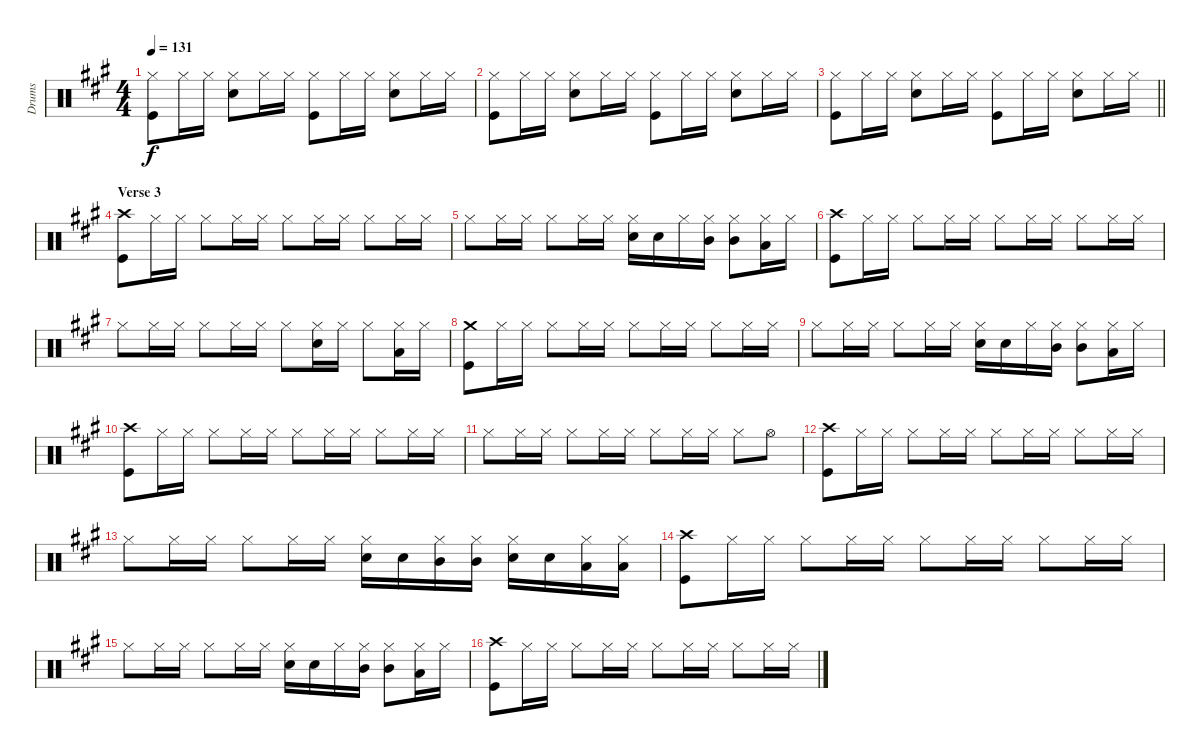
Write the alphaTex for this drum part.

\track ("Drums" "Drums") {instrument percussion}
\staff {score}
\articulation defaults
\ts (4 4)
\tempo 131
\clef neutral
\ks a
("Hi-Hat (closed)" "Kick (hit)").8{dy f} "Hi-Hat (closed)".16 "Hi-Hat (closed)".16 ("Hi-Hat (closed)" "Snare (hit) 2").8 "Hi-Hat (closed)".16 "Hi-Hat (closed)".16 ("Hi-Hat (closed)" "Kick (hit)").8 "Hi-Hat (closed)".16 "Hi-Hat (closed)".16 ("Hi-Hat (closed)" "Snare (hit) 2").8 "Hi-Hat (closed)".16 "Hi-Hat (closed)".16 |
("Hi-Hat (closed)" "Kick (hit)").8 "Hi-Hat (closed)".16 "Hi-Hat (closed)".16 ("Hi-Hat (closed)" "Snare (hit) 2").8 "Hi-Hat (closed)".16 "Hi-Hat (closed)".16 ("Hi-Hat (closed)" "Kick (hit)").8 "Hi-Hat (closed)".16 "Hi-Hat (closed)".16 ("Hi-Hat (closed)" "Snare (hit) 2").8 "Hi-Hat (closed)".16 "Hi-Hat (closed)".16 |
\barLineRight lightlight
("Hi-Hat (closed)" "Kick (hit)").8 "Hi-Hat (closed)".16 "Hi-Hat (closed)".16 ("Hi-Hat (closed)" "Snare (hit) 2").8 "Hi-Hat (closed)".16 "Hi-Hat (closed)".16 ("Hi-Hat (closed)" "Kick (hit)").8 "Hi-Hat (closed)".16 "Hi-Hat (closed)".16 ("Hi-Hat (closed)" "Snare (hit) 2").8 "Hi-Hat (closed)".16 "Hi-Hat (closed)".16 |
\section ("" "Verse 3")
("Crash high (hit)" "Kick (hit)").8 "Hi-Hat (closed)".16 "Hi-Hat (closed)".16 "Hi-Hat (closed)".8 "Hi-Hat (closed)".16 "Hi-Hat (closed)".16 "Hi-Hat (closed)".8 "Hi-Hat (closed)".16 "Hi-Hat (closed)".16 "Hi-Hat (closed)".8 "Hi-Hat (closed)".16 "Hi-Hat (closed)".16 |
"Hi-Hat (closed)".8 "Hi-Hat (closed)".16 "Hi-Hat (closed)".16 "Hi-Hat (closed)".8 "Hi-Hat (closed)".16 "Hi-Hat (closed)".16 ("Hi-Hat (closed)" "Snare (hit) 2").16 "Snare (hit) 2".16 "Hi-Hat (closed)".16 ("Hi-Hat (closed)" "Mid Tom (hit)").16 ("Hi-Hat (closed)" "Mid Tom (hit)").8 ("Hi-Hat (closed)" "Low Tom (hit)").16 "Hi-Hat (closed)".16 |
("Crash high (hit)" "Kick (hit)").8 "Hi-Hat (closed)".16 "Hi-Hat (closed)".16 "Hi-Hat (closed)".8 "Hi-Hat (closed)".16 "Hi-Hat (closed)".16 "Hi-Hat (closed)".8 "Hi-Hat (closed)".16 "Hi-Hat (closed)".16 "Hi-Hat (closed)".8 "Hi-Hat (closed)".16 "Hi-Hat (closed)".16 |
"Hi-Hat (closed)".8 "Hi-Hat (closed)".16 "Hi-Hat (closed)".16 "Hi-Hat (closed)".8 "Hi-Hat (closed)".16 "Hi-Hat (closed)".16 "Hi-Hat (closed)".8 ("Hi-Hat (closed)" "Snare (hit) 2").16 "Hi-Hat (closed)".16 "Hi-Hat (closed)".8 ("Hi-Hat (closed)" "Low Tom (hit)").16 "Hi-Hat (closed)".16 |
("Crash medium (hit)" "Kick (hit)").8 "Hi-Hat (closed)".16 "Hi-Hat (closed)".16 "Hi-Hat (closed)".8 "Hi-Hat (closed)".16 "Hi-Hat (closed)".16 "Hi-Hat (closed)".8 "Hi-Hat (closed)".16 "Hi-Hat (closed)".16 "Hi-Hat (closed)".8 "Hi-Hat (closed)".16 "Hi-Hat (closed)".16 |
"Hi-Hat (closed)".8 "Hi-Hat (closed)".16 "Hi-Hat (closed)".16 "Hi-Hat (closed)".8 "Hi-Hat (closed)".16 "Hi-Hat (closed)".16 ("Hi-Hat (closed)" "Snare (hit) 2").16 "Snare (hit) 2".16 "Hi-Hat (closed)".16 ("Hi-Hat (closed)" "Mid Tom (hit)").16 ("Hi-Hat (closed)" "Mid Tom (hit)").8 ("Hi-Hat (closed)" "Low Tom (hit)").16 "Hi-Hat (closed)".16 |
("Crash high (hit)" "Kick (hit)").8 "Hi-Hat (closed)".16 "Hi-Hat (closed)".16 "Hi-Hat (closed)".8 "Hi-Hat (closed)".16 "Hi-Hat (closed)".16 "Hi-Hat (closed)".8 "Hi-Hat (closed)".16 "Hi-Hat (closed)".16 "Hi-Hat (closed)".8 "Hi-Hat (closed)".16 "Hi-Hat (closed)".16 |
"Hi-Hat (closed)".8 "Hi-Hat (closed)".16 "Hi-Hat (closed)".16 "Hi-Hat (closed)".8 "Hi-Hat (closed)".16 "Hi-Hat (closed)".16 "Hi-Hat (closed)".8 "Hi-Hat (closed)".16 "Hi-Hat (closed)".16 "Hi-Hat (closed)".8 "Hi-Hat (open)".8 |
("Crash high (hit)" "Kick (hit)").8 "Hi-Hat (closed)".16 "Hi-Hat (closed)".16 "Hi-Hat (closed)".8 "Hi-Hat (closed)".16 "Hi-Hat (closed)".16 "Hi-Hat (closed)".8 "Hi-Hat (closed)".16 "Hi-Hat (closed)".16 "Hi-Hat (closed)".8 "Hi-Hat (closed)".16 "Hi-Hat (closed)".16 |
"Hi-Hat (closed)".8 "Hi-Hat (closed)".16 "Hi-Hat (closed)".16 "Hi-Hat (closed)".8 "Hi-Hat (closed)".16 "Hi-Hat (closed)".16 ("Hi-Hat (closed)" "Snare (hit) 2").16 "Snare (hit) 2".16 ("Hi-Hat (closed)" "Mid Tom (hit)").16 ("Hi-Hat (closed)" "Mid Tom (hit)").16 ("Hi-Hat (closed)" "Snare (hit) 2").16 "Snare (hit) 2".16 ("Hi-Hat (closed)" "Low Tom (hit)").16 ("Hi-Hat (closed)" "Low Tom (hit)").16 |
("Crash high (hit)" "Kick (hit)").8 "Hi-Hat (closed)".16 "Hi-Hat (closed)".16 "Hi-Hat (closed)".8 "Hi-Hat (closed)".16 "Hi-Hat (closed)".16 "Hi-Hat (closed)".8 "Hi-Hat (closed)".16 "Hi-Hat (closed)".16 "Hi-Hat (closed)".8 "Hi-Hat (closed)".16 "Hi-Hat (closed)".16 |
"Hi-Hat (closed)".8 "Hi-Hat (closed)".16 "Hi-Hat (closed)".16 "Hi-Hat (closed)".8 "Hi-Hat (closed)".16 "Hi-Hat (closed)".16 ("Hi-Hat (closed)" "Snare (hit) 2").16 "Snare (hit) 2".16 "Hi-Hat (closed)".16 ("Hi-Hat (closed)" "Mid Tom (hit)").16 ("Hi-Hat (closed)" "Mid Tom (hit)").8 ("Hi-Hat (closed)" "Low Tom (hit)").16 "Hi-Hat (closed)".16 |
("Crash high (hit)" "Kick (hit)").8 "Hi-Hat (closed)".16 "Hi-Hat (closed)".16 "Hi-Hat (closed)".8 "Hi-Hat (closed)".16 "Hi-Hat (closed)".16 "Hi-Hat (closed)".8 "Hi-Hat (closed)".16 "Hi-Hat (closed)".16 "Hi-Hat (closed)".8 "Hi-Hat (closed)".16 "Hi-Hat (closed)".16
